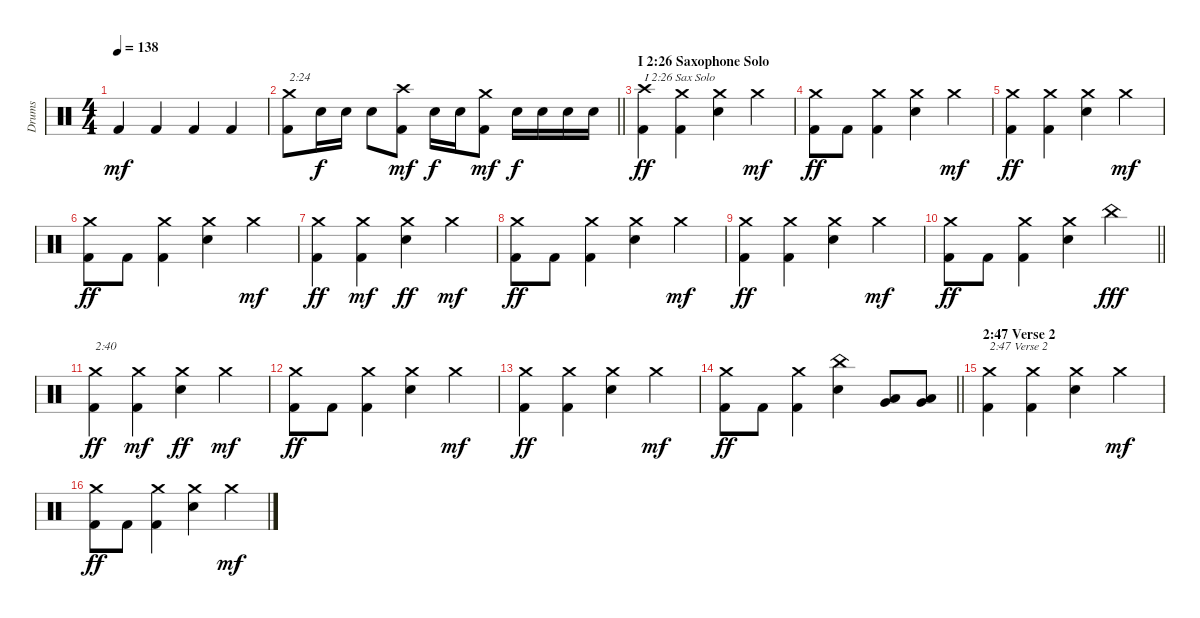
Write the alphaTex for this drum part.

\track ("Drums" "Drums") {instrument percussion}
\staff {score}
\articulation defaults
\ts (4 4)
\tempo 138
\clef neutral
\ks c "Kick (hit) 2".4{dy mf} "Kick (hit) 2".4 "Kick (hit) 2".4 "Kick (hit) 2".4
|
\barLineRight lightlight
("Crash medium (hit)" "Kick (hit) 2").8{txt "2:24"} "Electric Snare (hit)".16{dy f} "Electric Snare (hit)".16 "Electric Snare (hit)".8 ("Crash high (hit)" "Kick (hit) 2").8{dy mf} "Electric Snare (hit)".16{dy f} "Electric Snare (hit)".16 ("Crash medium (hit)" "Kick (hit) 2").8{dy mf} "Electric Snare (hit)".16{dy f} "Electric Snare (hit)".16 "Electric Snare (hit)".16 "Electric Snare (hit)".16 |
\section ("" "I 2:26 Saxophone Solo")
("Crash high (hit)" "Kick (hit) 2").4{txt "I 2:26 Sax Solo" dy ff} ("Crash medium (hit)" "Kick (hit) 2").4 ("Crash medium (hit)" "Electric Snare (hit)").4 "Crash medium (hit)".4{dy mf} |
("Crash medium (hit)" "Kick (hit) 2").8{dy ff} "Kick (hit) 2".8 ("Crash medium (hit)" "Kick (hit) 2").4 ("Crash medium (hit)" "Electric Snare (hit)").4 "Crash medium (hit)".4{dy mf} |
("Crash medium (hit)" "Kick (hit) 2").4{dy ff} ("Crash medium (hit)" "Kick (hit) 2").4 ("Crash medium (hit)" "Electric Snare (hit)").4 "Crash medium (hit)".4{dy mf} |
("Crash medium (hit)" "Kick (hit) 2").8{dy ff} "Kick (hit) 2".8 ("Crash medium (hit)" "Kick (hit) 2").4 ("Crash medium (hit)" "Electric Snare (hit)").4 "Crash medium (hit)".4{dy mf} |
("Crash medium (hit)" "Kick (hit) 2").4{dy ff} ("Crash medium (hit)" "Kick (hit) 2").4{dy mf} ("Crash medium (hit)" "Electric Snare (hit)").4{dy ff} "Crash medium (hit)".4{dy mf} |
("Crash medium (hit)" "Kick (hit) 2").8{dy ff} "Kick (hit) 2".8 ("Crash medium (hit)" "Kick (hit) 2").4 ("Crash medium (hit)" "Electric Snare (hit)").4 "Crash medium (hit)".4{dy mf} |
("Crash medium (hit)" "Kick (hit) 2").4{dy ff} ("Crash medium (hit)" "Kick (hit) 2").4 ("Crash medium (hit)" "Electric Snare (hit)").4 "Crash medium (hit)".4{dy mf} |
\barLineRight lightlight
("Crash medium (hit)" "Kick (hit) 2").8{dy ff} "Kick (hit) 2".8 ("Crash medium (hit)" "Kick (hit) 2").4 ("Crash medium (hit)" "Electric Snare (hit)").4 "China (hit)".4{dy fff} |
("Crash medium (hit)" "Kick (hit) 2").4{txt "2:40" dy ff} ("Crash medium (hit)" "Kick (hit) 2").4{dy mf} ("Crash medium (hit)" "Electric Snare (hit)").4{dy ff} "Crash medium (hit)".4{dy mf} |
("Crash medium (hit)" "Kick (hit) 2").8{dy ff} "Kick (hit) 2".8 ("Crash medium (hit)" "Kick (hit) 2").4 ("Crash medium (hit)" "Electric Snare (hit)").4 "Crash medium (hit)".4{dy mf} |
("Crash medium (hit)" "Kick (hit) 2").4{dy ff} ("Crash medium (hit)" "Kick (hit) 2").4 ("Crash medium (hit)" "Electric Snare (hit)").4 "Crash medium (hit)".4{dy mf} |
\barLineRight lightlight
("Crash medium (hit)" "Kick (hit) 2").8{dy ff} "Kick (hit) 2".8 ("Crash medium (hit)" "Kick (hit) 2").4 ("China (hit)" "Electric Snare (hit)").4 ("Very Low Tom (hit)" "Low Floor Tom (hit)").8 ("Very Low Tom (hit)" "Low Floor Tom (hit)").8 |
\section ("" "2:47 Verse 2")
("Crash medium (hit)" "Kick (hit) 2").4{txt "2:47 Verse 2"} ("Crash medium (hit)" "Kick (hit) 2").4 ("Crash medium (hit)" "Electric Snare (hit)").4 "Crash medium (hit)".4{dy mf} |
("Crash medium (hit)" "Kick (hit) 2").8{dy ff} "Kick (hit) 2".8 ("Crash medium (hit)" "Kick (hit) 2").4 ("Crash medium (hit)" "Electric Snare (hit)").4 "Crash medium (hit)".4{dy mf}
